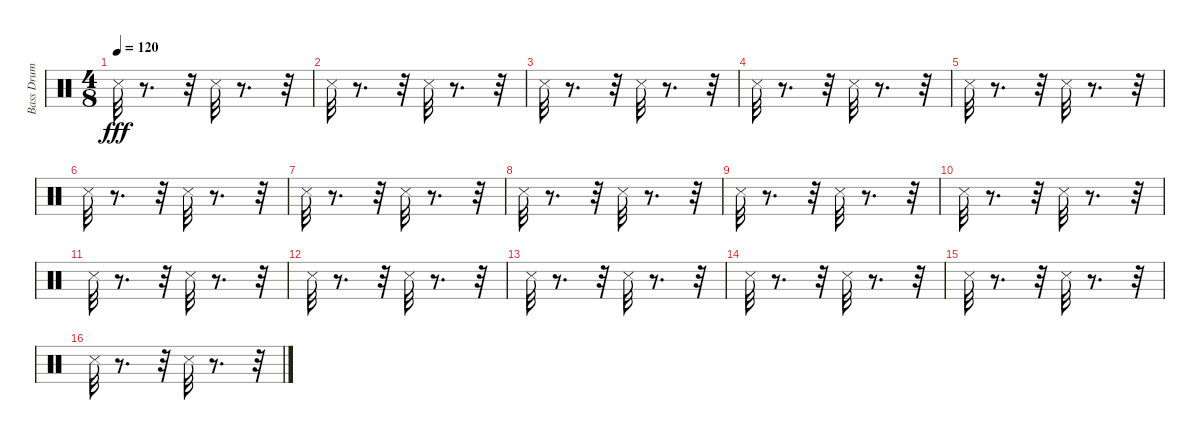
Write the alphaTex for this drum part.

\track ("Bass Drum" "Bass Drum") {instrument percussion}
\staff {score}
\articulation defaults
\ts (4 8)
\tempo 120
\clef neutral
\ks c "Metronome (hit)".32{dy fff}
r.8{d} r.32 "Metronome (hit)".32 r.8{d} r.32 |
"Metronome (hit)".32 r.8{d} r.32 "Metronome (hit)".32 r.8{d} r.32 |
"Metronome (hit)".32 r.8{d} r.32 "Metronome (hit)".32 r.8{d} r.32 |
"Metronome (hit)".32 r.8{d} r.32 "Metronome (hit)".32 r.8{d} r.32 |
"Metronome (hit)".32 r.8{d} r.32 "Metronome (hit)".32 r.8{d} r.32 |
"Metronome (hit)".32 r.8{d} r.32 "Metronome (hit)".32 r.8{d} r.32 |
"Metronome (hit)".32 r.8{d} r.32 "Metronome (hit)".32 r.8{d} r.32 |
"Metronome (hit)".32 r.8{d} r.32 "Metronome (hit)".32 r.8{d} r.32 |
"Metronome (hit)".32 r.8{d} r.32 "Metronome (hit)".32 r.8{d} r.32 |
"Metronome (hit)".32 r.8{d} r.32 "Metronome (hit)".32 r.8{d} r.32 |
"Metronome (hit)".32 r.8{d} r.32 "Metronome (hit)".32 r.8{d} r.32 |
"Metronome (hit)".32 r.8{d} r.32 "Metronome (hit)".32 r.8{d} r.32 |
"Metronome (hit)".32 r.8{d} r.32 "Metronome (hit)".32 r.8{d} r.32 |
"Metronome (hit)".32 r.8{d} r.32 "Metronome (hit)".32 r.8{d} r.32 |
"Metronome (hit)".32 r.8{d} r.32 "Metronome (hit)".32 r.8{d} r.32 |
"Metronome (hit)".32 r.8{d} r.32 "Metronome (hit)".32 r.8{d} r.32
